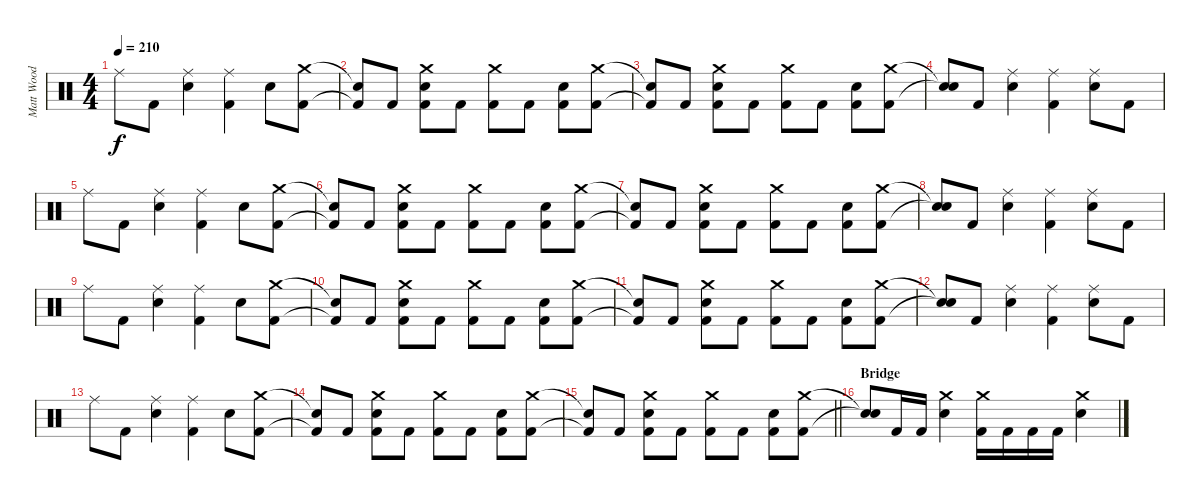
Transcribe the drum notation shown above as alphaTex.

\track ("Matt Wood" "Matt Wood") {instrument percussion}
\staff {score}
\articulation defaults
\ts (4 4)
\tempo 210
\clef neutral
\ks c "Ride (middle)".8{dy f} "Kick (hit) 2".8
("Ride (middle)" "Snare (hit) 2").4 ("Ride (middle)" "Kick (hit) 2").4 "Snare (hit) 2".8 ("Crash medium (hit)" "Kick (hit) 2").8 |
("Snare (hit)"{t} "Kick (hit) 2"{t}).8 "Kick (hit) 2".8 ("Crash medium (hit)" "Snare (hit) 2" "Kick (hit) 2").8 "Kick (hit) 2".8 ("Crash medium (hit)" "Kick (hit) 2").8 "Kick (hit) 2".8 ("Snare (hit) 2" "Kick (hit) 2").8 ("Crash medium (hit)" "Kick (hit) 2").8 |
("Snare (hit)"{t} "Kick (hit) 2"{t}).8 "Kick (hit) 2".8 ("Crash medium (hit)" "Snare (hit) 2" "Kick (hit) 2").8 "Kick (hit) 2".8 ("Crash medium (hit)" "Kick (hit) 2").8 "Kick (hit) 2".8 ("Snare (hit) 2" "Kick (hit) 2").8 ("Crash medium (hit)" "Kick (hit) 2").8 |
("Snare (hit)"{t} "Snare (hit)"{t}).8 "Kick (hit) 2".8 ("Ride (middle)" "Snare (hit) 2").4 ("Ride (middle)" "Kick (hit) 2").4 ("Ride (middle)" "Snare (hit) 2").8 "Kick (hit) 2".8 |
"Ride (middle)".8 "Kick (hit) 2".8 ("Ride (middle)" "Snare (hit) 2").4 ("Ride (middle)" "Kick (hit) 2").4 "Snare (hit) 2".8 ("Crash medium (hit)" "Kick (hit) 2").8 |
("Snare (hit)"{t} "Kick (hit) 2"{t}).8 "Kick (hit) 2".8 ("Crash medium (hit)" "Snare (hit) 2" "Kick (hit) 2").8 "Kick (hit) 2".8 ("Crash medium (hit)" "Kick (hit) 2").8 "Kick (hit) 2".8 ("Snare (hit) 2" "Kick (hit) 2").8 ("Crash medium (hit)" "Kick (hit) 2").8 |
("Snare (hit)"{t} "Kick (hit) 2"{t}).8 "Kick (hit) 2".8 ("Crash medium (hit)" "Snare (hit) 2" "Kick (hit) 2").8 "Kick (hit) 2".8 ("Crash medium (hit)" "Kick (hit) 2").8 "Kick (hit) 2".8 ("Snare (hit) 2" "Kick (hit) 2").8 ("Crash medium (hit)" "Kick (hit) 2").8 |
("Snare (hit)"{t} "Snare (hit)"{t}).8 "Kick (hit) 2".8 ("Ride (middle)" "Snare (hit) 2").4 ("Ride (middle)" "Kick (hit) 2").4 ("Ride (middle)" "Snare (hit) 2").8 "Kick (hit) 2".8 |
"Ride (middle)".8 "Kick (hit) 2".8 ("Ride (middle)" "Snare (hit) 2").4 ("Ride (middle)" "Kick (hit) 2").4 "Snare (hit) 2".8 ("Crash medium (hit)" "Kick (hit) 2").8 |
("Snare (hit)"{t} "Kick (hit) 2"{t}).8 "Kick (hit) 2".8 ("Crash medium (hit)" "Snare (hit) 2" "Kick (hit) 2").8 "Kick (hit) 2".8 ("Crash medium (hit)" "Kick (hit) 2").8 "Kick (hit) 2".8 ("Snare (hit) 2" "Kick (hit) 2").8 ("Crash medium (hit)" "Kick (hit) 2").8 |
("Snare (hit)"{t} "Kick (hit) 2"{t}).8 "Kick (hit) 2".8 ("Crash medium (hit)" "Snare (hit) 2" "Kick (hit) 2").8 "Kick (hit) 2".8 ("Crash medium (hit)" "Kick (hit) 2").8 "Kick (hit) 2".8 ("Snare (hit) 2" "Kick (hit) 2").8 ("Crash medium (hit)" "Kick (hit) 2").8 |
("Snare (hit)"{t} "Snare (hit)"{t}).8 "Kick (hit) 2".8 ("Ride (middle)" "Snare (hit) 2").4 ("Ride (middle)" "Kick (hit) 2").4 ("Ride (middle)" "Snare (hit) 2").8 "Kick (hit) 2".8 |
"Ride (middle)".8 "Kick (hit) 2".8 ("Ride (middle)" "Snare (hit) 2").4 ("Ride (middle)" "Kick (hit) 2").4 "Snare (hit) 2".8 ("Crash medium (hit)" "Kick (hit) 2").8 |
("Snare (hit)"{t} "Kick (hit) 2"{t}).8 "Kick (hit) 2".8 ("Crash medium (hit)" "Snare (hit) 2" "Kick (hit) 2").8 "Kick (hit) 2".8 ("Crash medium (hit)" "Kick (hit) 2").8 "Kick (hit) 2".8 ("Snare (hit) 2" "Kick (hit) 2").8 ("Crash medium (hit)" "Kick (hit) 2").8 |
\barLineRight lightlight
("Snare (hit)"{t} "Kick (hit) 2"{t}).8 "Kick (hit) 2".8 ("Crash medium (hit)" "Snare (hit) 2" "Kick (hit) 2").8 "Kick (hit) 2".8 ("Crash medium (hit)" "Kick (hit) 2").8 "Kick (hit) 2".8 ("Snare (hit) 2" "Kick (hit) 2").8 ("Crash medium (hit)" "Kick (hit) 2").8 |
\section ("" "Bridge")
("Snare (hit)"{t} "Snare (hit)"{t}).8 "Kick (hit) 2".16 "Kick (hit) 2".16 ("Crash medium (hit)" "Snare (hit) 2").4 ("Crash medium (hit)" "Kick (hit) 2").16 "Kick (hit) 2".16 "Kick (hit) 2".16 "Kick (hit) 2".16 ("Crash medium (hit)" "Snare (hit) 2").4
